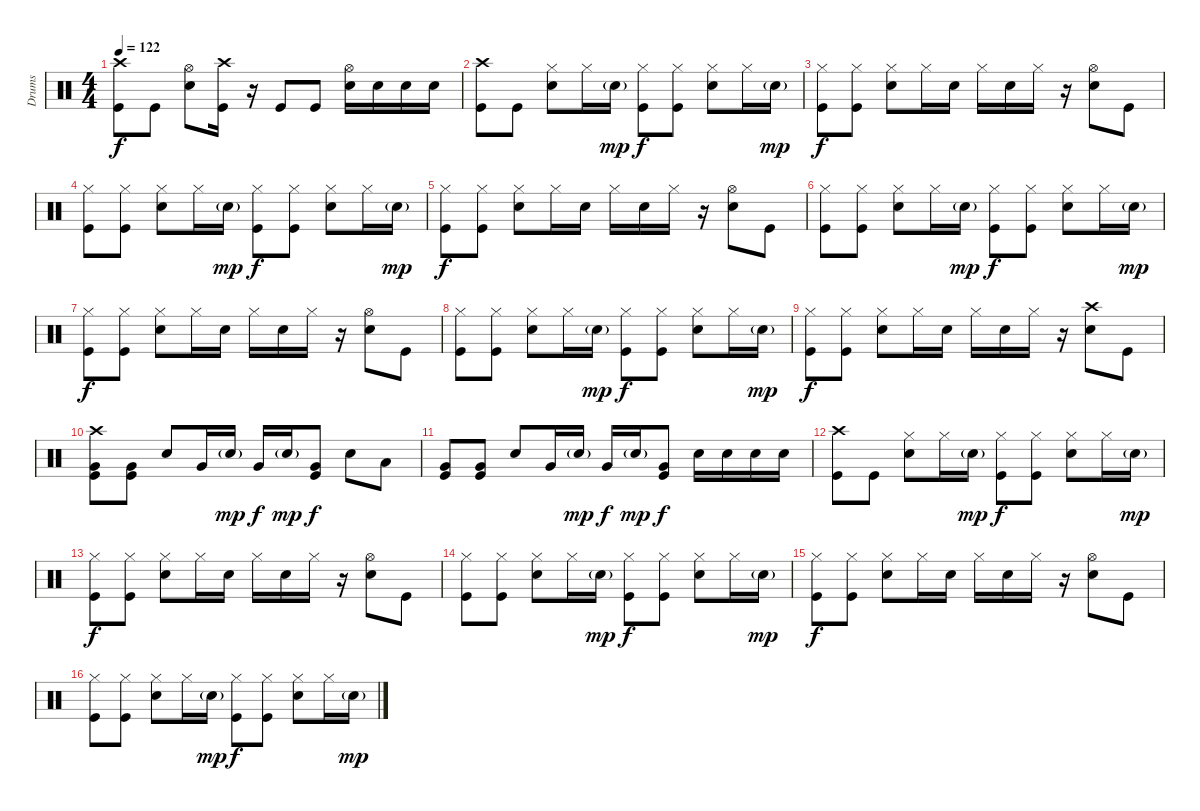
\track ("Drums" "Drums") {instrument percussion}
\staff {score}
\articulation defaults
\ts (4 4)
\tempo 122
\clef neutral
\ks c
("Crash high (hit)" "Kick (hit)").8{dy f} "Kick (hit)".8 ("Hi-Hat (open)" "Snare (hit) 2").8 ("Crash high (hit)" "Kick (hit)").16 r.16 "Kick (hit)".8 "Kick (hit)".8 ("Hi-Hat (open)" "Snare (hit) 2").16 "Snare (hit) 2".16 "Snare (hit) 2".16 "Snare (hit) 2".16 |
("Crash high (hit)" "Kick (hit)").8 "Kick (hit)".8 ("Hi-Hat (closed)" "Snare (hit) 2").8 "Hi-Hat (closed)".16 "Snare (hit) 2"{g}.16{dy mp} ("Hi-Hat (closed)" "Kick (hit)").8{dy f} ("Hi-Hat (closed)" "Kick (hit)").8 ("Hi-Hat (closed)" "Snare (hit) 2").8 "Hi-Hat (closed)".16 "Snare (hit) 2"{g}.16{dy mp} |
("Hi-Hat (closed)" "Kick (hit)").8{dy f} ("Hi-Hat (closed)" "Kick (hit)").8 ("Hi-Hat (closed)" "Snare (hit) 2").8 "Hi-Hat (closed)".16 "Snare (hit) 2".16 "Hi-Hat (closed)".16 "Snare (hit) 2".16 "Hi-Hat (closed)".16 r.16 ("Hi-Hat (open)" "Snare (hit) 2").8 "Kick (hit)".8 |
("Hi-Hat (closed)" "Kick (hit)").8 ("Hi-Hat (closed)" "Kick (hit)").8 ("Hi-Hat (closed)" "Snare (hit) 2").8 "Hi-Hat (closed)".16 "Snare (hit) 2"{g}.16{dy mp} ("Hi-Hat (closed)" "Kick (hit)").8{dy f} ("Hi-Hat (closed)" "Kick (hit)").8 ("Hi-Hat (closed)" "Snare (hit) 2").8 "Hi-Hat (closed)".16 "Snare (hit) 2"{g}.16{dy mp} |
("Hi-Hat (closed)" "Kick (hit)").8{dy f} ("Hi-Hat (closed)" "Kick (hit)").8 ("Hi-Hat (closed)" "Snare (hit) 2").8 "Hi-Hat (closed)".16 "Snare (hit) 2".16 "Hi-Hat (closed)".16 "Snare (hit) 2".16 "Hi-Hat (closed)".16 r.16 ("Hi-Hat (open)" "Snare (hit) 2").8 "Kick (hit)".8 |
("Hi-Hat (closed)" "Kick (hit)").8 ("Hi-Hat (closed)" "Kick (hit)").8 ("Hi-Hat (closed)" "Snare (hit) 2").8 "Hi-Hat (closed)".16 "Snare (hit) 2"{g}.16{dy mp} ("Hi-Hat (closed)" "Kick (hit)").8{dy f} ("Hi-Hat (closed)" "Kick (hit)").8 ("Hi-Hat (closed)" "Snare (hit) 2").8 "Hi-Hat (closed)".16 "Snare (hit) 2"{g}.16{dy mp} |
("Hi-Hat (closed)" "Kick (hit)").8{dy f} ("Hi-Hat (closed)" "Kick (hit)").8 ("Hi-Hat (closed)" "Snare (hit) 2").8 "Hi-Hat (closed)".16 "Snare (hit) 2".16 "Hi-Hat (closed)".16 "Snare (hit) 2".16 "Hi-Hat (closed)".16 r.16 ("Hi-Hat (open)" "Snare (hit) 2").8 "Kick (hit)".8 |
("Hi-Hat (closed)" "Kick (hit)").8 ("Hi-Hat (closed)" "Kick (hit)").8 ("Hi-Hat (closed)" "Snare (hit) 2").8 "Hi-Hat (closed)".16 "Snare (hit) 2"{g}.16{dy mp} ("Hi-Hat (closed)" "Kick (hit)").8{dy f} ("Hi-Hat (closed)" "Kick (hit)").8 ("Hi-Hat (closed)" "Snare (hit) 2").8 "Hi-Hat (closed)".16 "Snare (hit) 2"{g}.16{dy mp} |
("Hi-Hat (closed)" "Kick (hit)").8{dy f} ("Hi-Hat (closed)" "Kick (hit)").8 ("Hi-Hat (closed)" "Snare (hit) 2").8 "Hi-Hat (closed)".16 "Snare (hit) 2".16 "Hi-Hat (closed)".16 "Snare (hit) 2".16 "Hi-Hat (closed)".16 r.16 ("Crash high (hit)" "Snare (hit) 2").8 "Kick (hit)".8 |
("Crash high (hit)" "Very Low Tom (hit)" "Kick (hit)").8 ("Very Low Tom (hit)" "Kick (hit)").8 "Snare (hit) 2".8 "Very Low Tom (hit)".16 "Snare (hit) 2"{g}.16{dy mp} "Very Low Tom (hit)".16{dy f} "Snare (hit) 2"{g}.16{dy mp} ("Very Low Tom (hit)" "Kick (hit)").8{dy f} "Snare (hit) 2".8 "Low Tom (hit)".8 |
("Very Low Tom (hit)" "Kick (hit)").8 ("Very Low Tom (hit)" "Kick (hit)").8 "Snare (hit) 2".8 "Very Low Tom (hit)".16 "Snare (hit) 2"{g}.16{dy mp} "Very Low Tom (hit)".16{dy f} "Snare (hit) 2"{g}.16{dy mp} ("Very Low Tom (hit)" "Kick (hit)").8{dy f} "Snare (hit) 2".16 "Snare (hit) 2".16 "Snare (hit) 2".16 "Snare (hit) 2".16 |
("Crash high (hit)" "Kick (hit)").8 "Kick (hit)".8 ("Hi-Hat (closed)" "Snare (hit) 2").8 "Hi-Hat (closed)".16 "Snare (hit) 2"{g}.16{dy mp} ("Hi-Hat (closed)" "Kick (hit)").8{dy f} ("Hi-Hat (closed)" "Kick (hit)").8 ("Hi-Hat (closed)" "Snare (hit) 2").8 "Hi-Hat (closed)".16 "Snare (hit) 2"{g}.16{dy mp} |
("Hi-Hat (closed)" "Kick (hit)").8{dy f} ("Hi-Hat (closed)" "Kick (hit)").8 ("Hi-Hat (closed)" "Snare (hit) 2").8 "Hi-Hat (closed)".16 "Snare (hit) 2".16 "Hi-Hat (closed)".16 "Snare (hit) 2".16 "Hi-Hat (closed)".16 r.16 ("Hi-Hat (open)" "Snare (hit) 2").8 "Kick (hit)".8 |
("Hi-Hat (closed)" "Kick (hit)").8 ("Hi-Hat (closed)" "Kick (hit)").8 ("Hi-Hat (closed)" "Snare (hit) 2").8 "Hi-Hat (closed)".16 "Snare (hit) 2"{g}.16{dy mp} ("Hi-Hat (closed)" "Kick (hit)").8{dy f} ("Hi-Hat (closed)" "Kick (hit)").8 ("Hi-Hat (closed)" "Snare (hit) 2").8 "Hi-Hat (closed)".16 "Snare (hit) 2"{g}.16{dy mp} |
("Hi-Hat (closed)" "Kick (hit)").8{dy f} ("Hi-Hat (closed)" "Kick (hit)").8 ("Hi-Hat (closed)" "Snare (hit) 2").8 "Hi-Hat (closed)".16 "Snare (hit) 2".16 "Hi-Hat (closed)".16 "Snare (hit) 2".16 "Hi-Hat (closed)".16 r.16 ("Hi-Hat (open)" "Snare (hit) 2").8 "Kick (hit)".8 |
("Hi-Hat (closed)" "Kick (hit)").8 ("Hi-Hat (closed)" "Kick (hit)").8 ("Hi-Hat (closed)" "Snare (hit) 2").8 "Hi-Hat (closed)".16 "Snare (hit) 2"{g}.16{dy mp} ("Hi-Hat (closed)" "Kick (hit)").8{dy f} ("Hi-Hat (closed)" "Kick (hit)").8 ("Hi-Hat (closed)" "Snare (hit) 2").8 "Hi-Hat (closed)".16 "Snare (hit) 2"{g}.16{dy mp}
